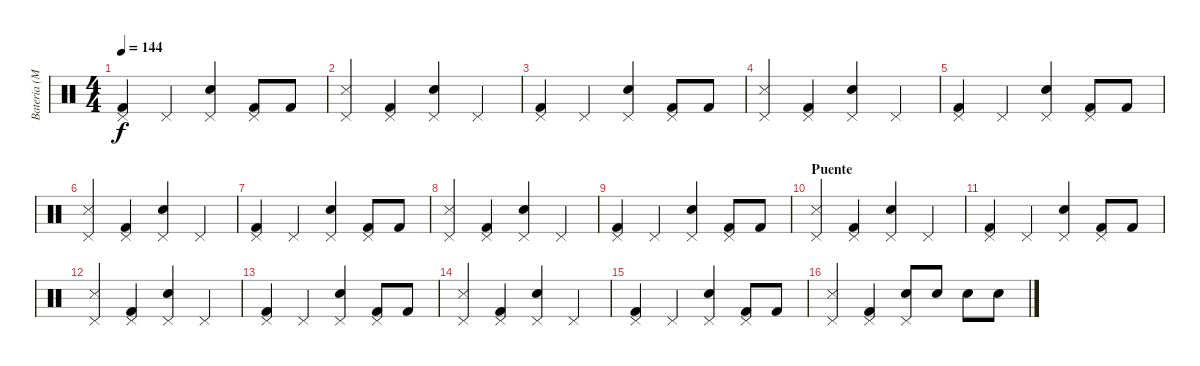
\track ("Bateria (Matt)" "Bateria (M") {instrument percussion}
\staff {score}
\articulation defaults
\ts (4 4)
\tempo 144
\clef neutral
\ks c
("Pedal Hi-Hat (hit)" "Kick (hit) 2").4{dy f} "Pedal Hi-Hat (hit)".4 ("Pedal Hi-Hat (hit)" "Snare (hit) 2").4 ("Pedal Hi-Hat (hit)" "Kick (hit) 2").8 "Kick (hit) 2".8 |
("Pedal Hi-Hat (hit)" "Snare (side stick) 3").4 ("Pedal Hi-Hat (hit)" "Kick (hit) 2").4 ("Pedal Hi-Hat (hit)" "Snare (hit) 2").4 "Pedal Hi-Hat (hit)".4 |
("Pedal Hi-Hat (hit)" "Kick (hit) 2").4 "Pedal Hi-Hat (hit)".4 ("Pedal Hi-Hat (hit)" "Snare (hit) 2").4 ("Pedal Hi-Hat (hit)" "Kick (hit) 2").8 "Kick (hit) 2".8 |
("Pedal Hi-Hat (hit)" "Snare (side stick) 3").4 ("Pedal Hi-Hat (hit)" "Kick (hit) 2").4 ("Pedal Hi-Hat (hit)" "Snare (hit) 2").4 "Pedal Hi-Hat (hit)".4 |
("Pedal Hi-Hat (hit)" "Kick (hit) 2").4 "Pedal Hi-Hat (hit)".4 ("Pedal Hi-Hat (hit)" "Snare (hit) 2").4 ("Pedal Hi-Hat (hit)" "Kick (hit) 2").8 "Kick (hit) 2".8 |
("Pedal Hi-Hat (hit)" "Snare (side stick) 3").4 ("Pedal Hi-Hat (hit)" "Kick (hit) 2").4 ("Pedal Hi-Hat (hit)" "Snare (hit) 2").4 "Pedal Hi-Hat (hit)".4 |
("Pedal Hi-Hat (hit)" "Kick (hit) 2").4 "Pedal Hi-Hat (hit)".4 ("Pedal Hi-Hat (hit)" "Snare (hit) 2").4 ("Pedal Hi-Hat (hit)" "Kick (hit) 2").8 "Kick (hit) 2".8 |
("Pedal Hi-Hat (hit)" "Snare (side stick) 3").4 ("Pedal Hi-Hat (hit)" "Kick (hit) 2").4 ("Pedal Hi-Hat (hit)" "Snare (hit) 2").4 "Pedal Hi-Hat (hit)".4 |
("Pedal Hi-Hat (hit)" "Kick (hit) 2").4 "Pedal Hi-Hat (hit)".4 ("Pedal Hi-Hat (hit)" "Snare (hit) 2").4 ("Pedal Hi-Hat (hit)" "Kick (hit) 2").8 "Kick (hit) 2".8 |
\section ("" "Puente")
("Pedal Hi-Hat (hit)" "Snare (side stick) 3").4 ("Pedal Hi-Hat (hit)" "Kick (hit) 2").4 ("Pedal Hi-Hat (hit)" "Snare (hit) 2").4 "Pedal Hi-Hat (hit)".4 |
("Pedal Hi-Hat (hit)" "Kick (hit) 2").4 "Pedal Hi-Hat (hit)".4 ("Pedal Hi-Hat (hit)" "Snare (hit) 2").4 ("Pedal Hi-Hat (hit)" "Kick (hit) 2").8 "Kick (hit) 2".8 |
("Pedal Hi-Hat (hit)" "Snare (side stick) 3").4 ("Pedal Hi-Hat (hit)" "Kick (hit) 2").4 ("Pedal Hi-Hat (hit)" "Snare (hit) 2").4 "Pedal Hi-Hat (hit)".4 |
("Pedal Hi-Hat (hit)" "Kick (hit) 2").4 "Pedal Hi-Hat (hit)".4 ("Pedal Hi-Hat (hit)" "Snare (hit) 2").4 ("Pedal Hi-Hat (hit)" "Kick (hit) 2").8 "Kick (hit) 2".8 |
("Pedal Hi-Hat (hit)" "Snare (side stick) 3").4 ("Pedal Hi-Hat (hit)" "Kick (hit) 2").4 ("Pedal Hi-Hat (hit)" "Snare (hit) 2").4 "Pedal Hi-Hat (hit)".4 |
("Pedal Hi-Hat (hit)" "Kick (hit) 2").4 "Pedal Hi-Hat (hit)".4 ("Pedal Hi-Hat (hit)" "Snare (hit) 2").4 ("Pedal Hi-Hat (hit)" "Kick (hit) 2").8 "Kick (hit) 2".8 |
("Pedal Hi-Hat (hit)" "Snare (side stick) 3").4 ("Pedal Hi-Hat (hit)" "Kick (hit) 2").4 ("Pedal Hi-Hat (hit)" "Snare (hit) 2").8 "Snare (hit) 2".8 "Snare (hit) 2".8 "Snare (hit) 2".8
